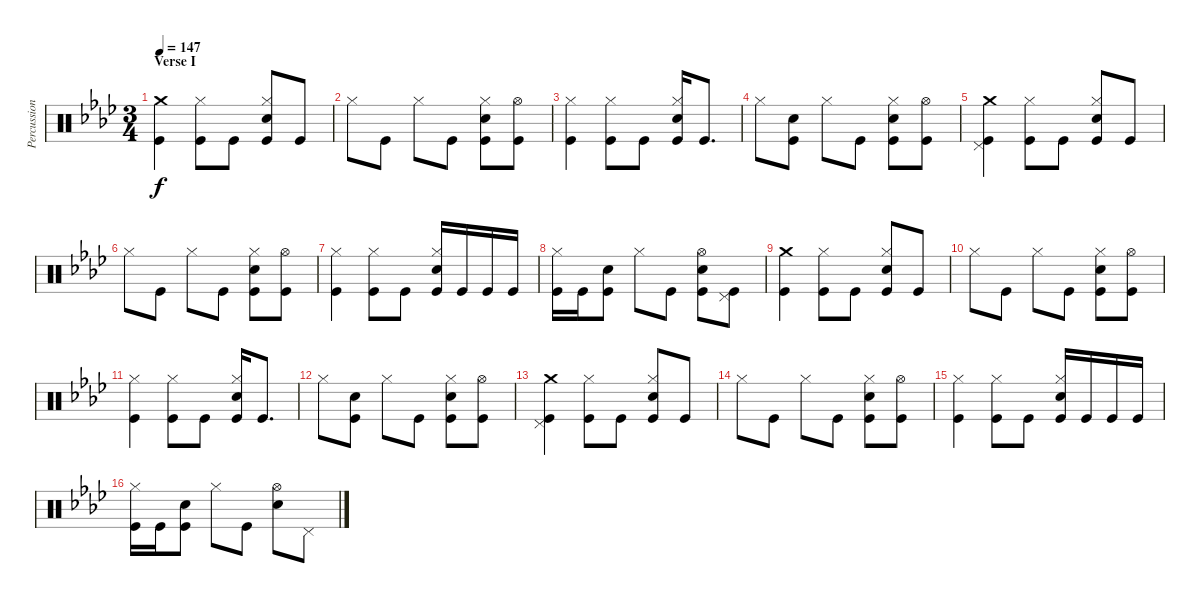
\track ("Percussion" "Percussion") {instrument percussion}
\staff {score}
\articulation defaults
\ts (3 4)
\section ("" "Verse I")
\tempo 147
\clef neutral
\ks ab
("Crash medium (hit)" "Kick (hit)").4{dy f} ("Hi-Hat (closed)" "Kick (hit)").8 "Kick (hit)".8 ("Hi-Hat (closed)" "Electric Snare (hit)" "Kick (hit)").8 "Kick (hit)".8 |
"Hi-Hat (closed)".8 "Kick (hit)".8 "Hi-Hat (closed)".8 "Kick (hit)".8 ("Hi-Hat (closed)" "Electric Snare (hit)" "Kick (hit)").8 ("Hi-Hat (open)" "Kick (hit)").8 |
("Hi-Hat (closed)" "Kick (hit)").4 ("Hi-Hat (closed)" "Kick (hit)").8 "Kick (hit)".8 ("Hi-Hat (closed)" "Electric Snare (hit)" "Kick (hit)").16 "Kick (hit)".8{d} |
"Hi-Hat (closed)".8 ("Electric Snare (hit)" "Kick (hit)").8 "Hi-Hat (closed)".8 "Kick (hit)".8 ("Hi-Hat (closed)" "Electric Snare (hit)" "Kick (hit)").8 ("Hi-Hat (open)" "Kick (hit)").8 |
("Crash medium (hit)" "Pedal Hi-Hat (hit)" "Kick (hit)").4 ("Hi-Hat (closed)" "Kick (hit)").8 "Kick (hit)".8 ("Hi-Hat (closed)" "Electric Snare (hit)" "Kick (hit)").8 "Kick (hit)".8 |
"Hi-Hat (closed)".8 "Kick (hit)".8 "Hi-Hat (closed)".8 "Kick (hit)".8 ("Hi-Hat (closed)" "Electric Snare (hit)" "Kick (hit)").8 ("Hi-Hat (open)" "Kick (hit)").8 |
("Hi-Hat (closed)" "Kick (hit)").4 ("Hi-Hat (closed)" "Kick (hit)").8 "Kick (hit)".8 ("Hi-Hat (closed)" "Electric Snare (hit)" "Kick (hit)").16 "Kick (hit)".16 "Kick (hit)".16 "Kick (hit)".16 |
("Hi-Hat (closed)" "Kick (hit)").16 "Kick (hit)".16 ("Electric Snare (hit)" "Kick (hit)").8 "Hi-Hat (closed)".8 "Kick (hit)".8 ("Hi-Hat (open)" "Electric Snare (hit)" "Kick (hit)").8 ("Pedal Hi-Hat (hit)" "Kick (hit)").8 |
("Crash medium (hit)" "Kick (hit)").4 ("Hi-Hat (closed)" "Kick (hit)").8 "Kick (hit)".8 ("Hi-Hat (closed)" "Electric Snare (hit)" "Kick (hit)").8 "Kick (hit)".8 |
"Hi-Hat (closed)".8 "Kick (hit)".8 "Hi-Hat (closed)".8 "Kick (hit)".8 ("Hi-Hat (closed)" "Electric Snare (hit)" "Kick (hit)").8 ("Hi-Hat (open)" "Kick (hit)").8 |
("Hi-Hat (closed)" "Kick (hit)").4 ("Hi-Hat (closed)" "Kick (hit)").8 "Kick (hit)".8 ("Hi-Hat (closed)" "Electric Snare (hit)" "Kick (hit)").16 "Kick (hit)".8{d} |
"Hi-Hat (closed)".8 ("Electric Snare (hit)" "Kick (hit)").8 "Hi-Hat (closed)".8 "Kick (hit)".8 ("Hi-Hat (closed)" "Electric Snare (hit)" "Kick (hit)").8 ("Hi-Hat (open)" "Kick (hit)").8 |
("Crash medium (hit)" "Pedal Hi-Hat (hit)" "Kick (hit)").4 ("Hi-Hat (closed)" "Kick (hit)").8 "Kick (hit)".8 ("Hi-Hat (closed)" "Electric Snare (hit)" "Kick (hit)").8 "Kick (hit)".8 |
"Hi-Hat (closed)".8 "Kick (hit)".8 "Hi-Hat (closed)".8 "Kick (hit)".8 ("Hi-Hat (closed)" "Electric Snare (hit)" "Kick (hit)").8 ("Hi-Hat (open)" "Kick (hit)").8 |
("Hi-Hat (closed)" "Kick (hit)").4 ("Hi-Hat (closed)" "Kick (hit)").8 "Kick (hit)".8 ("Hi-Hat (closed)" "Electric Snare (hit)" "Kick (hit)").16 "Kick (hit)".16 "Kick (hit)".16 "Kick (hit)".16 |
("Hi-Hat (closed)" "Kick (hit)").16 "Kick (hit)".16 ("Electric Snare (hit)" "Kick (hit)").8 "Hi-Hat (closed)".8 "Kick (hit)".8 ("Hi-Hat (open)" "Electric Snare (hit)").8 "Pedal Hi-Hat (hit)".8
